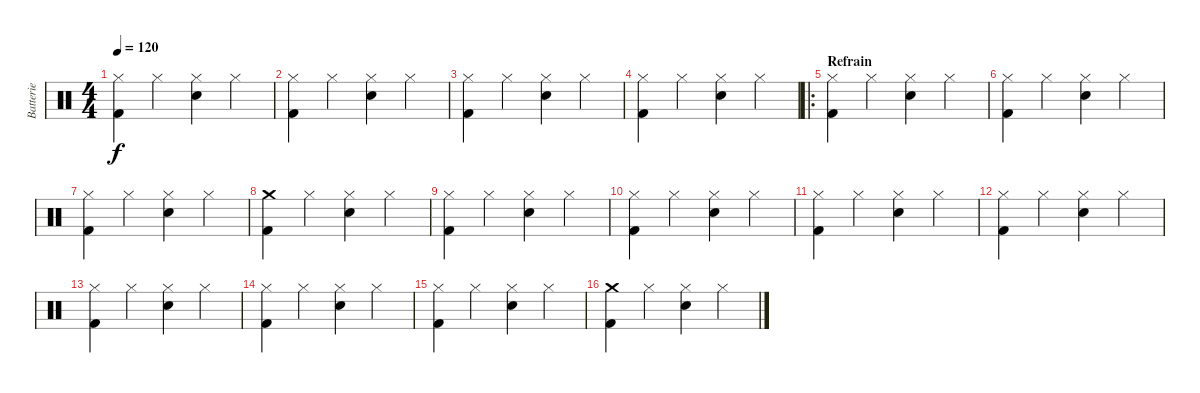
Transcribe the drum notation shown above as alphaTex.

\track ("Batterie" "Batterie") {instrument percussion}
\staff {score}
\articulation defaults
\ts (4 4)
\tempo 120
\clef neutral
\ks c
("Hi-Hat (closed)" "Kick (hit) 2").4{dy f} "Hi-Hat (closed)".4 ("Hi-Hat (closed)" "Snare (hit) 2").4 "Hi-Hat (closed)".4 |
("Hi-Hat (closed)" "Kick (hit) 2").4 "Hi-Hat (closed)".4 ("Hi-Hat (closed)" "Snare (hit) 2").4 "Hi-Hat (closed)".4 |
("Hi-Hat (closed)" "Kick (hit) 2").4 "Hi-Hat (closed)".4 ("Hi-Hat (closed)" "Snare (hit) 2").4 "Hi-Hat (closed)".4 |
("Hi-Hat (closed)" "Kick (hit) 2").4 "Hi-Hat (closed)".4 ("Hi-Hat (closed)" "Snare (hit) 2").4 "Hi-Hat (closed)".4 |
\ro
\section ("" "Refrain")
("Hi-Hat (closed)" "Kick (hit) 2").4 "Hi-Hat (closed)".4 ("Hi-Hat (closed)" "Snare (hit) 2").4 "Hi-Hat (closed)".4 |
("Hi-Hat (closed)" "Kick (hit) 2").4 "Hi-Hat (closed)".4 ("Hi-Hat (closed)" "Snare (hit) 2").4 "Hi-Hat (closed)".4 |
("Hi-Hat (closed)" "Kick (hit) 2").4 "Hi-Hat (closed)".4 ("Hi-Hat (closed)" "Snare (hit) 2").4 "Hi-Hat (closed)".4 |
("Crash medium (hit)" "Kick (hit) 2").4 "Hi-Hat (closed)".4 ("Hi-Hat (closed)" "Snare (hit) 2").4 "Hi-Hat (closed)".4 |
("Hi-Hat (closed)" "Kick (hit) 2").4 "Hi-Hat (closed)".4 ("Hi-Hat (closed)" "Snare (hit) 2").4 "Hi-Hat (closed)".4 |
("Hi-Hat (closed)" "Kick (hit) 2").4 "Hi-Hat (closed)".4 ("Hi-Hat (closed)" "Snare (hit) 2").4 "Hi-Hat (closed)".4 |
("Hi-Hat (closed)" "Kick (hit) 2").4 "Hi-Hat (closed)".4 ("Hi-Hat (closed)" "Snare (hit) 2").4 "Hi-Hat (closed)".4 |
("Hi-Hat (closed)" "Kick (hit) 2").4 "Hi-Hat (closed)".4 ("Hi-Hat (closed)" "Snare (hit) 2").4 "Hi-Hat (closed)".4 |
("Hi-Hat (closed)" "Kick (hit) 2").4 "Hi-Hat (closed)".4 ("Hi-Hat (closed)" "Snare (hit) 2").4 "Hi-Hat (closed)".4 |
("Hi-Hat (closed)" "Kick (hit) 2").4 "Hi-Hat (closed)".4 ("Hi-Hat (closed)" "Snare (hit) 2").4 "Hi-Hat (closed)".4 |
("Hi-Hat (closed)" "Kick (hit) 2").4 "Hi-Hat (closed)".4 ("Hi-Hat (closed)" "Snare (hit) 2").4 "Hi-Hat (closed)".4 |
("Crash medium (hit)" "Kick (hit) 2").4 "Hi-Hat (closed)".4 ("Hi-Hat (closed)" "Snare (hit) 2").4 "Hi-Hat (closed)".4
